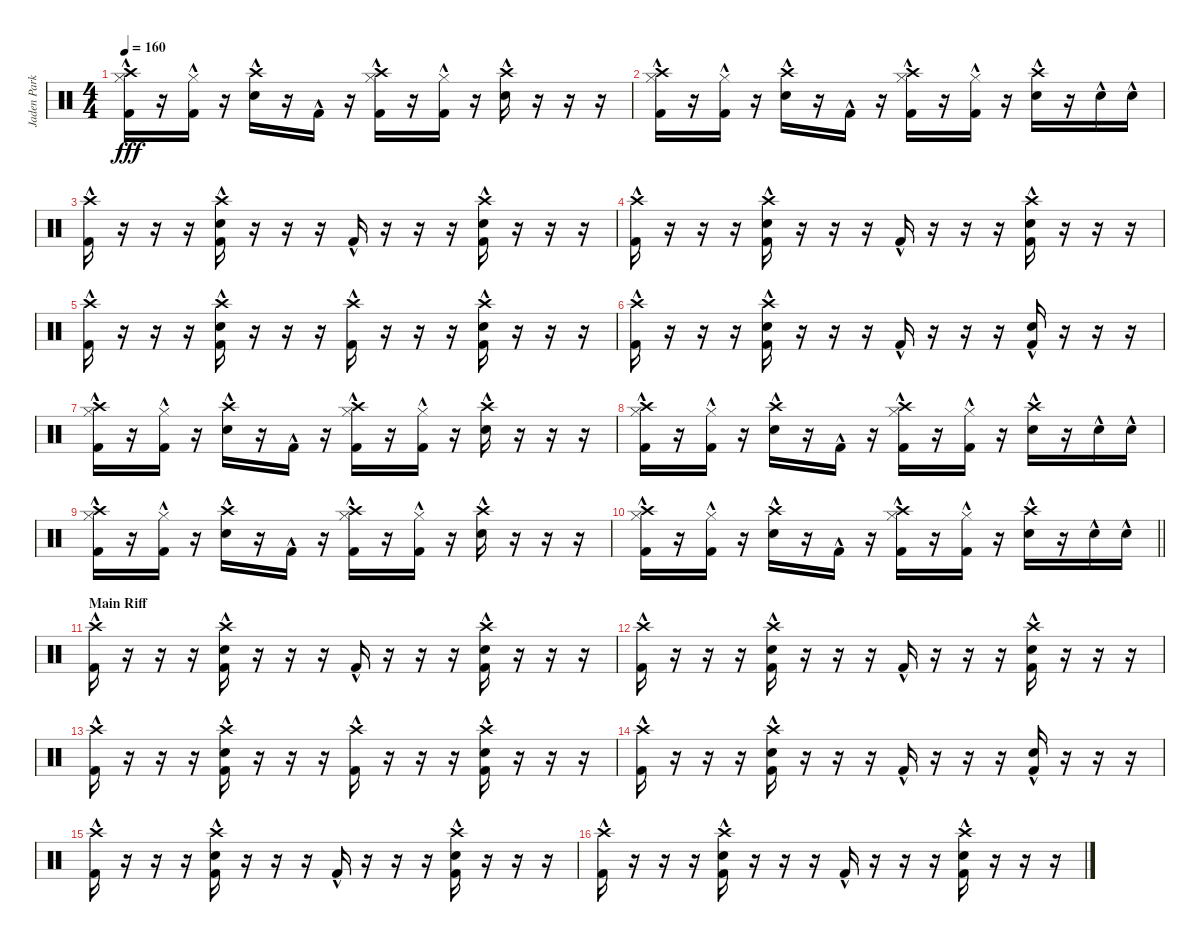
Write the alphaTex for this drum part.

\track ("Jaden Parkes" "Jaden Park") {instrument percussion}
\staff {score}
\articulation defaults
\ts (4 4)
\tempo 160
\clef neutral
\ks c
("Hi-Hat (closed)"{hac} "Crash high (hit)" "Kick (hit) 2"{hac}).16{dy fff} r.16 ("Hi-Hat (closed)"{hac} "Kick (hit) 2"{hac}).16 r.16 ("Crash high (hit)"{hac} "Electric Snare (hit)"{hac}).16 r.16 "Kick (hit) 2"{hac}.16 r.16 ("Hi-Hat (closed)"{hac} "Crash high (hit)" "Kick (hit) 2"{hac}).16 r.16 ("Hi-Hat (closed)"{hac} "Kick (hit) 2"{hac}).16 r.16 ("Crash high (hit)"{hac} "Electric Snare (hit)"{hac}).16 r.16 r.16 r.16 |
("Hi-Hat (closed)"{hac} "Crash high (hit)" "Kick (hit) 2"{hac}).16 r.16 ("Hi-Hat (closed)"{hac} "Kick (hit) 2"{hac}).16 r.16 ("Crash high (hit)"{hac} "Electric Snare (hit)"{hac}).16 r.16 "Kick (hit) 2"{hac}.16 r.16 ("Hi-Hat (closed)"{hac} "Crash high (hit)" "Kick (hit) 2"{hac}).16 r.16 ("Hi-Hat (closed)"{hac} "Kick (hit) 2"{hac}).16 r.16 ("Crash high (hit)"{hac} "Electric Snare (hit)"{hac}).16 r.16 "Electric Snare (hit)"{hac}.16 "Electric Snare (hit)"{hac}.16 |
("Crash high (hit)" "Kick (hit) 2"{hac}).16 r.16 r.16 r.16 ("Crash high (hit)"{hac} "Electric Snare (hit)" "Kick (hit) 2"{hac}).16 r.16 r.16 r.16 "Kick (hit) 2"{hac}.16 r.16 r.16 r.16 ("Crash high (hit)"{hac} "Electric Snare (hit)" "Kick (hit) 2"{hac}).16 r.16 r.16 r.16 |
("Crash high (hit)" "Kick (hit) 2"{hac}).16 r.16 r.16 r.16 ("Crash high (hit)"{hac} "Electric Snare (hit)" "Kick (hit) 2"{hac}).16 r.16 r.16 r.16 "Kick (hit) 2"{hac}.16 r.16 r.16 r.16 ("Crash high (hit)"{hac} "Electric Snare (hit)" "Kick (hit) 2"{hac}).16 r.16 r.16 r.16 |
("Crash high (hit)" "Kick (hit) 2"{hac}).16 r.16 r.16 r.16 ("Crash high (hit)"{hac} "Electric Snare (hit)" "Kick (hit) 2"{hac}).16 r.16 r.16 r.16 ("Crash high (hit)" "Kick (hit) 2"{hac}).16 r.16 r.16 r.16 ("Crash high (hit)"{hac} "Electric Snare (hit)" "Kick (hit) 2"{hac}).16 r.16 r.16 r.16 |
("Crash high (hit)" "Kick (hit) 2"{hac}).16 r.16 r.16 r.16 ("Crash high (hit)"{hac} "Electric Snare (hit)" "Kick (hit) 2"{hac}).16 r.16 r.16 r.16 "Kick (hit) 2"{hac}.16 r.16 r.16 r.16 ("Electric Snare (hit)" "Kick (hit) 2"{hac}).16 r.16 r.16 r.16 |
("Hi-Hat (closed)"{hac} "Crash high (hit)" "Kick (hit) 2"{hac}).16 r.16 ("Hi-Hat (closed)"{hac} "Kick (hit) 2"{hac}).16 r.16 ("Crash high (hit)"{hac} "Electric Snare (hit)"{hac}).16 r.16 "Kick (hit) 2"{hac}.16 r.16 ("Hi-Hat (closed)"{hac} "Crash high (hit)" "Kick (hit) 2"{hac}).16 r.16 ("Hi-Hat (closed)"{hac} "Kick (hit) 2"{hac}).16 r.16 ("Crash high (hit)"{hac} "Electric Snare (hit)"{hac}).16 r.16 r.16 r.16 |
("Hi-Hat (closed)"{hac} "Crash high (hit)" "Kick (hit) 2"{hac}).16 r.16 ("Hi-Hat (closed)"{hac} "Kick (hit) 2"{hac}).16 r.16 ("Crash high (hit)"{hac} "Electric Snare (hit)"{hac}).16 r.16 "Kick (hit) 2"{hac}.16 r.16 ("Hi-Hat (closed)"{hac} "Crash high (hit)" "Kick (hit) 2"{hac}).16 r.16 ("Hi-Hat (closed)"{hac} "Kick (hit) 2"{hac}).16 r.16 ("Crash high (hit)"{hac} "Electric Snare (hit)"{hac}).16 r.16 "Electric Snare (hit)"{hac}.16 "Electric Snare (hit)"{hac}.16 |
("Hi-Hat (closed)"{hac} "Crash high (hit)" "Kick (hit) 2"{hac}).16 r.16 ("Hi-Hat (closed)"{hac} "Kick (hit) 2"{hac}).16 r.16 ("Crash high (hit)"{hac} "Electric Snare (hit)"{hac}).16 r.16 "Kick (hit) 2"{hac}.16 r.16 ("Hi-Hat (closed)"{hac} "Crash high (hit)" "Kick (hit) 2"{hac}).16 r.16 ("Hi-Hat (closed)"{hac} "Kick (hit) 2"{hac}).16 r.16 ("Crash high (hit)"{hac} "Electric Snare (hit)"{hac}).16 r.16 r.16 r.16 |
\barLineRight lightlight
("Hi-Hat (closed)"{hac} "Crash high (hit)" "Kick (hit) 2"{hac}).16 r.16 ("Hi-Hat (closed)"{hac} "Kick (hit) 2"{hac}).16 r.16 ("Crash high (hit)"{hac} "Electric Snare (hit)"{hac}).16 r.16 "Kick (hit) 2"{hac}.16 r.16 ("Hi-Hat (closed)"{hac} "Crash high (hit)" "Kick (hit) 2"{hac}).16 r.16 ("Hi-Hat (closed)"{hac} "Kick (hit) 2"{hac}).16 r.16 ("Crash high (hit)"{hac} "Electric Snare (hit)"{hac}).16 r.16 "Electric Snare (hit)"{hac}.16 "Electric Snare (hit)"{hac}.16 |
\section ("" "Main Riff")
("Crash high (hit)" "Kick (hit) 2"{hac}).16{volume 16} r.16 r.16 r.16 ("Crash high (hit)"{hac} "Electric Snare (hit)" "Kick (hit) 2"{hac}).16 r.16 r.16 r.16 "Kick (hit) 2"{hac}.16 r.16 r.16 r.16 ("Crash high (hit)"{hac} "Electric Snare (hit)" "Kick (hit) 2"{hac}).16 r.16 r.16 r.16 |
("Crash high (hit)" "Kick (hit) 2"{hac}).16 r.16 r.16 r.16 ("Crash high (hit)"{hac} "Electric Snare (hit)" "Kick (hit) 2"{hac}).16 r.16 r.16 r.16 "Kick (hit) 2"{hac}.16 r.16 r.16 r.16 ("Crash high (hit)"{hac} "Electric Snare (hit)" "Kick (hit) 2"{hac}).16 r.16 r.16 r.16 |
("Crash high (hit)" "Kick (hit) 2"{hac}).16 r.16 r.16 r.16 ("Crash high (hit)"{hac} "Electric Snare (hit)" "Kick (hit) 2"{hac}).16 r.16 r.16 r.16 ("Crash high (hit)" "Kick (hit) 2"{hac}).16 r.16 r.16 r.16 ("Crash high (hit)"{hac} "Electric Snare (hit)" "Kick (hit) 2"{hac}).16 r.16 r.16 r.16 |
("Crash high (hit)" "Kick (hit) 2"{hac}).16 r.16 r.16 r.16 ("Crash high (hit)"{hac} "Electric Snare (hit)" "Kick (hit) 2"{hac}).16 r.16 r.16 r.16 "Kick (hit) 2"{hac}.16 r.16 r.16 r.16 ("Electric Snare (hit)" "Kick (hit) 2"{hac}).16 r.16 r.16 r.16 |
("Crash high (hit)" "Kick (hit) 2"{hac}).16 r.16 r.16 r.16 ("Crash high (hit)"{hac} "Electric Snare (hit)" "Kick (hit) 2"{hac}).16 r.16 r.16 r.16 "Kick (hit) 2"{hac}.16 r.16 r.16 r.16 ("Crash high (hit)"{hac} "Electric Snare (hit)" "Kick (hit) 2"{hac}).16 r.16 r.16 r.16 |
("Crash high (hit)" "Kick (hit) 2"{hac}).16 r.16 r.16 r.16 ("Crash high (hit)"{hac} "Electric Snare (hit)" "Kick (hit) 2"{hac}).16 r.16 r.16 r.16 "Kick (hit) 2"{hac}.16 r.16 r.16 r.16 ("Crash high (hit)"{hac} "Electric Snare (hit)" "Kick (hit) 2"{hac}).16 r.16 r.16 r.16
